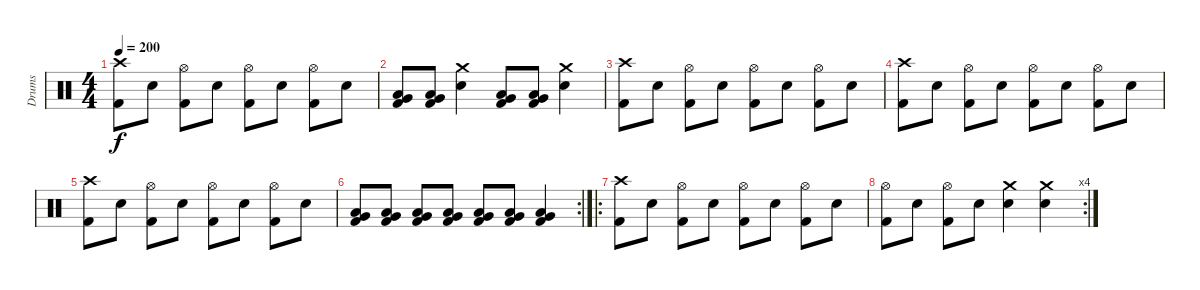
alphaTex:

\track ("Drums" "Drums") {instrument percussion}
\staff {score}
\articulation defaults
\ts (4 4)
\tempo 200
\clef neutral
\ks c
("Crash high (hit)" "Kick (hit) 2").8{dy f} "Electric Snare (hit)".8 ("Hi-Hat (open)" "Kick (hit) 2").8 "Electric Snare (hit)".8 ("Hi-Hat (open)" "Kick (hit) 2").8 "Electric Snare (hit)".8 ("Hi-Hat (open)" "Kick (hit) 2").8 "Electric Snare (hit)".8 |
("Very Low Tom (hit)" "Low Floor Tom (hit)" "Kick (hit) 2").8 ("Very Low Tom (hit)" "Low Floor Tom (hit)" "Kick (hit) 2").8 ("Crash medium (hit)" "Electric Snare (hit)").4 ("Very Low Tom (hit)" "Low Floor Tom (hit)" "Kick (hit) 2").8 ("Very Low Tom (hit)" "Low Floor Tom (hit)" "Kick (hit) 2").8 ("Crash medium (hit)" "Electric Snare (hit)").4 |
("Crash high (hit)" "Kick (hit) 2").8 "Electric Snare (hit)".8 ("Hi-Hat (open)" "Kick (hit) 2").8 "Electric Snare (hit)".8 ("Hi-Hat (open)" "Kick (hit) 2").8 "Electric Snare (hit)".8 ("Hi-Hat (open)" "Kick (hit) 2").8 "Electric Snare (hit)".8 |
("Crash high (hit)" "Kick (hit) 2").8 "Electric Snare (hit)".8 ("Hi-Hat (open)" "Kick (hit) 2").8 "Electric Snare (hit)".8 ("Hi-Hat (open)" "Kick (hit) 2").8 "Electric Snare (hit)".8 ("Hi-Hat (open)" "Kick (hit) 2").8 "Electric Snare (hit)".8 |
("Crash high (hit)" "Kick (hit) 2").8 "Electric Snare (hit)".8 ("Hi-Hat (open)" "Kick (hit) 2").8 "Electric Snare (hit)".8 ("Hi-Hat (open)" "Kick (hit) 2").8 "Electric Snare (hit)".8 ("Hi-Hat (open)" "Kick (hit) 2").8 "Electric Snare (hit)".8 |
\rc 2
("Very Low Tom (hit)" "Low Floor Tom (hit)" "Kick (hit) 2").8 ("Very Low Tom (hit)" "Low Floor Tom (hit)" "Kick (hit) 2").8 ("Very Low Tom (hit)" "Low Floor Tom (hit)" "Kick (hit) 2").8 ("Very Low Tom (hit)" "Low Floor Tom (hit)" "Kick (hit) 2").8 ("Very Low Tom (hit)" "Low Floor Tom (hit)" "Kick (hit) 2").8 ("Very Low Tom (hit)" "Low Floor Tom (hit)" "Kick (hit) 2").8 ("Very Low Tom (hit)" "Low Floor Tom (hit)" "Kick (hit) 2").4 |
\ro
("Crash high (hit)" "Kick (hit) 2").8 "Electric Snare (hit)".8 ("Hi-Hat (open)" "Kick (hit) 2").8 "Electric Snare (hit)".8 ("Hi-Hat (open)" "Kick (hit) 2").8 "Electric Snare (hit)".8 ("Hi-Hat (open)" "Kick (hit) 2").8 "Electric Snare (hit)".8 |
\rc 4
("Hi-Hat (open)" "Kick (hit) 2").8 "Electric Snare (hit)".8 ("Hi-Hat (open)" "Kick (hit) 2").8 "Electric Snare (hit)".8 ("Crash medium (hit)" "Electric Snare (hit)").4 ("Crash medium (hit)" "Electric Snare (hit)").4
